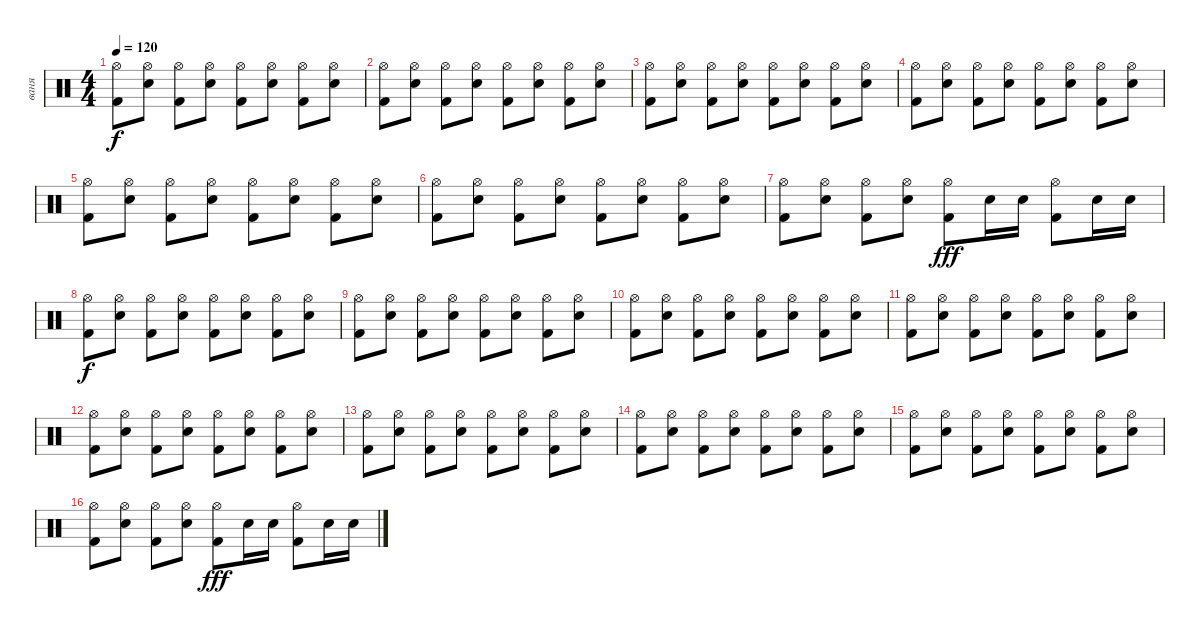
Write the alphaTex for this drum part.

\track ("ваня" "ваня") {instrument percussion}
\staff {score}
\articulation defaults
\ts (4 4)
\tempo 120
\clef neutral
\ks c
("Hi-Hat (open)" "Kick (hit) 2").8{dy f} ("Hi-Hat (open)" "Electric Snare (hit)").8 ("Hi-Hat (open)" "Kick (hit) 2").8 ("Hi-Hat (open)" "Electric Snare (hit)").8 ("Hi-Hat (open)" "Kick (hit) 2").8 ("Hi-Hat (open)" "Electric Snare (hit)").8 ("Hi-Hat (open)" "Kick (hit) 2").8 ("Hi-Hat (open)" "Electric Snare (hit)").8 |
("Hi-Hat (open)" "Kick (hit) 2").8 ("Hi-Hat (open)" "Electric Snare (hit)").8 ("Hi-Hat (open)" "Kick (hit) 2").8 ("Hi-Hat (open)" "Electric Snare (hit)").8 ("Hi-Hat (open)" "Kick (hit) 2").8 ("Hi-Hat (open)" "Electric Snare (hit)").8 ("Hi-Hat (open)" "Kick (hit) 2").8 ("Hi-Hat (open)" "Electric Snare (hit)").8 |
("Hi-Hat (open)" "Kick (hit) 2").8 ("Hi-Hat (open)" "Electric Snare (hit)").8 ("Hi-Hat (open)" "Kick (hit) 2").8 ("Hi-Hat (open)" "Electric Snare (hit)").8 ("Hi-Hat (open)" "Kick (hit) 2").8 ("Hi-Hat (open)" "Electric Snare (hit)").8 ("Hi-Hat (open)" "Kick (hit) 2").8 ("Hi-Hat (open)" "Electric Snare (hit)").8 |
("Hi-Hat (open)" "Kick (hit) 2").8 ("Hi-Hat (open)" "Electric Snare (hit)").8 ("Hi-Hat (open)" "Kick (hit) 2").8 ("Hi-Hat (open)" "Electric Snare (hit)").8 ("Hi-Hat (open)" "Kick (hit) 2").8 ("Hi-Hat (open)" "Electric Snare (hit)").8 ("Hi-Hat (open)" "Kick (hit) 2").8 ("Hi-Hat (open)" "Electric Snare (hit)").8 |
("Hi-Hat (open)" "Kick (hit) 2").8 ("Hi-Hat (open)" "Electric Snare (hit)").8 ("Hi-Hat (open)" "Kick (hit) 2").8 ("Hi-Hat (open)" "Electric Snare (hit)").8 ("Hi-Hat (open)" "Kick (hit) 2").8 ("Hi-Hat (open)" "Electric Snare (hit)").8 ("Hi-Hat (open)" "Kick (hit) 2").8 ("Hi-Hat (open)" "Electric Snare (hit)").8 |
("Hi-Hat (open)" "Kick (hit) 2").8 ("Hi-Hat (open)" "Electric Snare (hit)").8 ("Hi-Hat (open)" "Kick (hit) 2").8 ("Hi-Hat (open)" "Electric Snare (hit)").8 ("Hi-Hat (open)" "Kick (hit) 2").8 ("Hi-Hat (open)" "Electric Snare (hit)").8 ("Hi-Hat (open)" "Kick (hit) 2").8 ("Hi-Hat (open)" "Electric Snare (hit)").8 |
("Hi-Hat (open)" "Kick (hit) 2").8 ("Hi-Hat (open)" "Electric Snare (hit)").8 ("Hi-Hat (open)" "Kick (hit) 2").8 ("Hi-Hat (open)" "Electric Snare (hit)").8 ("Hi-Hat (open)" "Kick (hit) 2").8{dy fff} "Electric Snare (hit)".16 "Electric Snare (hit)".16 ("Hi-Hat (open)" "Kick (hit) 2").8 "Electric Snare (hit)".16 "Electric Snare (hit)".16 |
("Hi-Hat (open)" "Kick (hit) 2").8{dy f} ("Hi-Hat (open)" "Electric Snare (hit)").8 ("Hi-Hat (open)" "Kick (hit) 2").8 ("Hi-Hat (open)" "Electric Snare (hit)").8 ("Hi-Hat (open)" "Kick (hit) 2").8 ("Hi-Hat (open)" "Electric Snare (hit)").8 ("Hi-Hat (open)" "Kick (hit) 2").8 ("Hi-Hat (open)" "Electric Snare (hit)").8 |
("Hi-Hat (open)" "Kick (hit) 2").8 ("Hi-Hat (open)" "Electric Snare (hit)").8 ("Hi-Hat (open)" "Kick (hit) 2").8 ("Hi-Hat (open)" "Electric Snare (hit)").8 ("Hi-Hat (open)" "Kick (hit) 2").8 ("Hi-Hat (open)" "Electric Snare (hit)").8 ("Hi-Hat (open)" "Kick (hit) 2").8 ("Hi-Hat (open)" "Electric Snare (hit)").8 |
("Hi-Hat (open)" "Kick (hit) 2").8 ("Hi-Hat (open)" "Electric Snare (hit)").8 ("Hi-Hat (open)" "Kick (hit) 2").8 ("Hi-Hat (open)" "Electric Snare (hit)").8 ("Hi-Hat (open)" "Kick (hit) 2").8 ("Hi-Hat (open)" "Electric Snare (hit)").8 ("Hi-Hat (open)" "Kick (hit) 2").8 ("Hi-Hat (open)" "Electric Snare (hit)").8 |
("Hi-Hat (open)" "Kick (hit) 2").8 ("Hi-Hat (open)" "Electric Snare (hit)").8 ("Hi-Hat (open)" "Kick (hit) 2").8 ("Hi-Hat (open)" "Electric Snare (hit)").8 ("Hi-Hat (open)" "Kick (hit) 2").8 ("Hi-Hat (open)" "Electric Snare (hit)").8 ("Hi-Hat (open)" "Kick (hit) 2").8 ("Hi-Hat (open)" "Electric Snare (hit)").8 |
("Hi-Hat (open)" "Kick (hit) 2").8 ("Hi-Hat (open)" "Electric Snare (hit)").8 ("Hi-Hat (open)" "Kick (hit) 2").8 ("Hi-Hat (open)" "Electric Snare (hit)").8 ("Hi-Hat (open)" "Kick (hit) 2").8 ("Hi-Hat (open)" "Electric Snare (hit)").8 ("Hi-Hat (open)" "Kick (hit) 2").8 ("Hi-Hat (open)" "Electric Snare (hit)").8 |
("Hi-Hat (open)" "Kick (hit) 2").8 ("Hi-Hat (open)" "Electric Snare (hit)").8 ("Hi-Hat (open)" "Kick (hit) 2").8 ("Hi-Hat (open)" "Electric Snare (hit)").8 ("Hi-Hat (open)" "Kick (hit) 2").8 ("Hi-Hat (open)" "Electric Snare (hit)").8 ("Hi-Hat (open)" "Kick (hit) 2").8 ("Hi-Hat (open)" "Electric Snare (hit)").8 |
("Hi-Hat (open)" "Kick (hit) 2").8 ("Hi-Hat (open)" "Electric Snare (hit)").8 ("Hi-Hat (open)" "Kick (hit) 2").8 ("Hi-Hat (open)" "Electric Snare (hit)").8 ("Hi-Hat (open)" "Kick (hit) 2").8 ("Hi-Hat (open)" "Electric Snare (hit)").8 ("Hi-Hat (open)" "Kick (hit) 2").8 ("Hi-Hat (open)" "Electric Snare (hit)").8 |
("Hi-Hat (open)" "Kick (hit) 2").8 ("Hi-Hat (open)" "Electric Snare (hit)").8 ("Hi-Hat (open)" "Kick (hit) 2").8 ("Hi-Hat (open)" "Electric Snare (hit)").8 ("Hi-Hat (open)" "Kick (hit) 2").8 ("Hi-Hat (open)" "Electric Snare (hit)").8 ("Hi-Hat (open)" "Kick (hit) 2").8 ("Hi-Hat (open)" "Electric Snare (hit)").8 |
("Hi-Hat (open)" "Kick (hit) 2").8 ("Hi-Hat (open)" "Electric Snare (hit)").8 ("Hi-Hat (open)" "Kick (hit) 2").8 ("Hi-Hat (open)" "Electric Snare (hit)").8 ("Hi-Hat (open)" "Kick (hit) 2").8{dy fff} "Electric Snare (hit)".16 "Electric Snare (hit)".16 ("Hi-Hat (open)" "Kick (hit) 2").8 "Electric Snare (hit)".16 "Electric Snare (hit)".16
